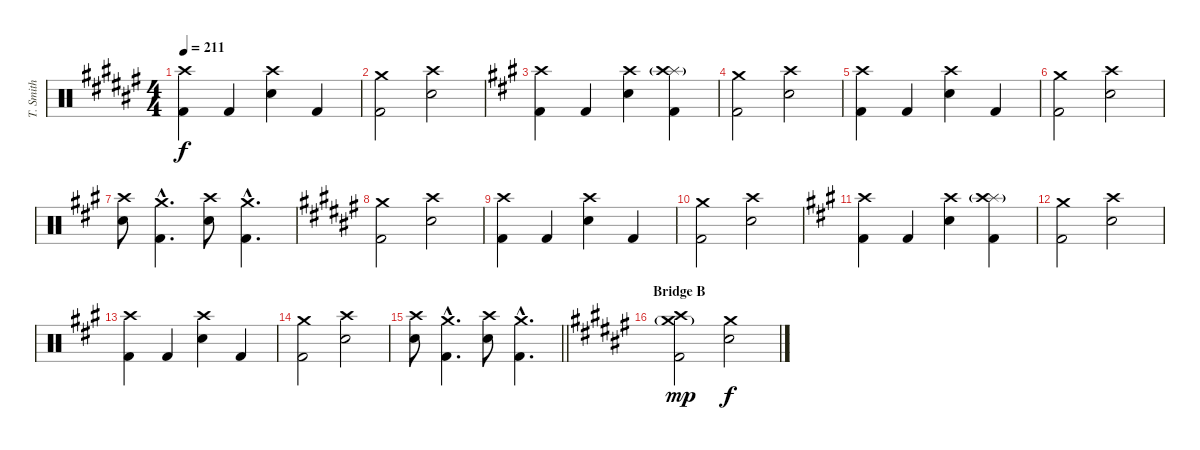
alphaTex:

\track ("T. Smith" "T. Smith") {instrument percussion}
\staff {score}
\articulation defaults
\ts (4 4)
\tempo 211
\clef neutral
\ks d#minor
("Crash high (hit)" "Kick (hit) 2").4{dy f} "Kick (hit) 2".4 ("Crash high (hit)" "Electric Snare (hit)").4 "Kick (hit) 2".4 |
("Crash medium (hit)" "Kick (hit) 2").2 ("Crash high (hit)" "Electric Snare (hit)").2 |
\ks f#minor
("Crash high (hit)" "Kick (hit) 2").4 "Kick (hit) 2".4 ("Crash high (hit)" "Electric Snare (hit)").4 ("Splash (hit)" "Crash high (hit)"{g} "Kick (hit) 2").4 |
("Crash medium (hit)" "Kick (hit) 2").2 ("Crash high (hit)" "Electric Snare (hit)").2 |
("Crash high (hit)" "Kick (hit) 2").4 "Kick (hit) 2".4 ("Crash high (hit)" "Electric Snare (hit)").4 "Kick (hit) 2".4 |
("Crash medium (hit)" "Kick (hit) 2").2 ("Crash high (hit)" "Electric Snare (hit)").2 |
("Crash high (hit)" "Electric Snare (hit)").8 ("Crash medium (hit)"{hac} "Kick (hit) 2"{hac}).4{d} ("Crash high (hit)" "Electric Snare (hit)").8 ("Crash medium (hit)"{hac} "Kick (hit) 2"{hac}).4{d} |
\ks d#minor
("Crash medium (hit)" "Kick (hit) 2").2 ("Crash high (hit)" "Electric Snare (hit)").2 |
("Crash high (hit)" "Kick (hit) 2").4 "Kick (hit) 2".4 ("Crash high (hit)" "Electric Snare (hit)").4 "Kick (hit) 2".4 |
("Crash medium (hit)" "Kick (hit) 2").2 ("Crash high (hit)" "Electric Snare (hit)").2 |
\ks f#minor
("Crash high (hit)" "Kick (hit) 2").4 "Kick (hit) 2".4 ("Crash high (hit)" "Electric Snare (hit)").4 ("Splash (hit)" "Crash high (hit)"{g} "Kick (hit) 2").4 |
("Crash medium (hit)" "Kick (hit) 2").2 ("Crash high (hit)" "Electric Snare (hit)").2 |
("Crash high (hit)" "Kick (hit) 2").4 "Kick (hit) 2".4 ("Crash high (hit)" "Electric Snare (hit)").4 "Kick (hit) 2".4 |
("Crash medium (hit)" "Kick (hit) 2").2 ("Crash high (hit)" "Electric Snare (hit)").2 |
\barLineRight lightlight
("Crash high (hit)" "Electric Snare (hit)").8 ("Crash medium (hit)"{hac} "Kick (hit) 2"{hac}).4{d} ("Crash high (hit)" "Electric Snare (hit)").8 ("Crash medium (hit)"{hac} "Kick (hit) 2"{hac}).4{d} |
\section ("" "Bridge B")
\ks d#minor
("Crash medium (hit)"{g} "Crash high (hit)" "Kick (hit) 2").2{dy mp} ("Crash medium (hit)" "Electric Snare (hit)").2{dy f}
